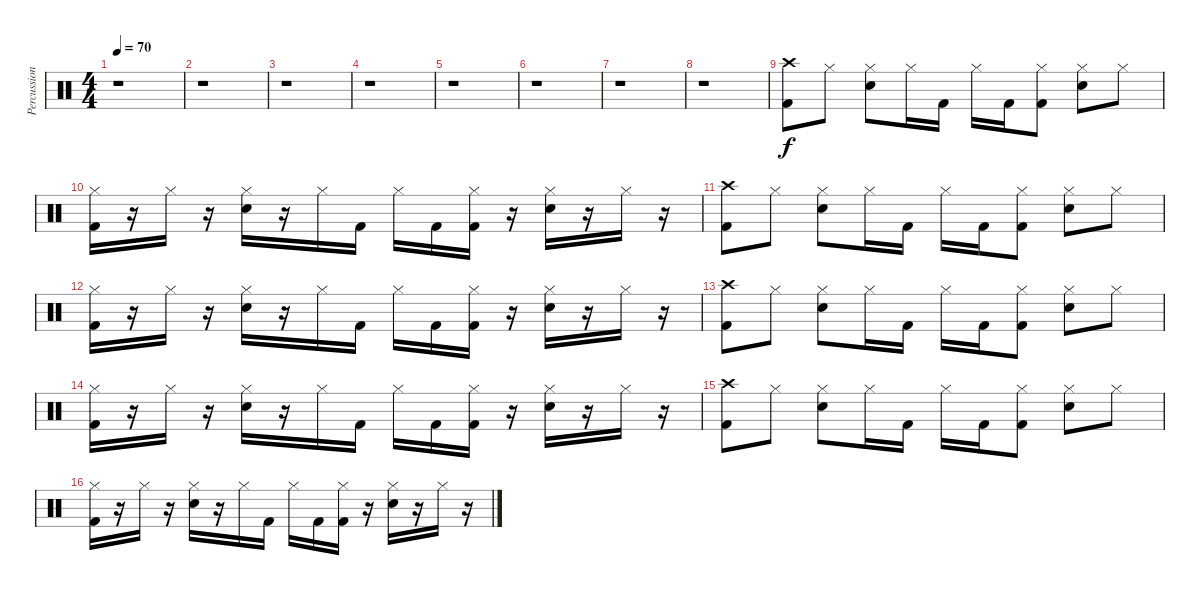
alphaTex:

\track ("Percussion" "Percussion") {instrument percussion}
\staff {score}
\articulation defaults
\ts (4 4)
\tempo 70
\clef neutral
\ks c
r.1{dy f} |
r.1 |
r.1 |
r.1 |
r.1 |
r.1 |
r.1 |
r.1 |
("Crash high (hit)" "Kick (hit) 2").8 "Hi-Hat (closed)".8 ("Hi-Hat (closed)" "Snare (hit) 2").8 "Hi-Hat (closed)".16 "Kick (hit) 2".16 "Hi-Hat (closed)".16 "Kick (hit) 2".16 ("Hi-Hat (closed)" "Kick (hit) 2").8 ("Hi-Hat (closed)" "Snare (hit) 2").8 "Hi-Hat (closed)".8 |
("Hi-Hat (closed)" "Kick (hit) 2").16 r.16 "Hi-Hat (closed)".16 r.16 ("Hi-Hat (closed)" "Snare (hit) 2").16 r.16 "Hi-Hat (closed)".16 "Kick (hit) 2".16 "Hi-Hat (closed)".16 "Kick (hit) 2".16 ("Hi-Hat (closed)" "Kick (hit) 2").16 r.16 ("Hi-Hat (closed)" "Snare (hit) 2").16 r.16 "Hi-Hat (closed)".16 r.16 |
("Crash high (hit)" "Kick (hit) 2").8 "Hi-Hat (closed)".8 ("Hi-Hat (closed)" "Snare (hit) 2").8 "Hi-Hat (closed)".16 "Kick (hit) 2".16 "Hi-Hat (closed)".16 "Kick (hit) 2".16 ("Hi-Hat (closed)" "Kick (hit) 2").8 ("Hi-Hat (closed)" "Snare (hit) 2").8 "Hi-Hat (closed)".8 |
("Hi-Hat (closed)" "Kick (hit) 2").16 r.16 "Hi-Hat (closed)".16 r.16 ("Hi-Hat (closed)" "Snare (hit) 2").16 r.16 "Hi-Hat (closed)".16 "Kick (hit) 2".16 "Hi-Hat (closed)".16 "Kick (hit) 2".16 ("Hi-Hat (closed)" "Kick (hit) 2").16 r.16 ("Hi-Hat (closed)" "Snare (hit) 2").16 r.16 "Hi-Hat (closed)".16 r.16 |
("Crash high (hit)" "Kick (hit) 2").8 "Hi-Hat (closed)".8 ("Hi-Hat (closed)" "Snare (hit) 2").8 "Hi-Hat (closed)".16 "Kick (hit) 2".16 "Hi-Hat (closed)".16 "Kick (hit) 2".16 ("Hi-Hat (closed)" "Kick (hit) 2").8 ("Hi-Hat (closed)" "Snare (hit) 2").8 "Hi-Hat (closed)".8 |
("Hi-Hat (closed)" "Kick (hit) 2").16 r.16 "Hi-Hat (closed)".16 r.16 ("Hi-Hat (closed)" "Snare (hit) 2").16 r.16 "Hi-Hat (closed)".16 "Kick (hit) 2".16 "Hi-Hat (closed)".16 "Kick (hit) 2".16 ("Hi-Hat (closed)" "Kick (hit) 2").16 r.16 ("Hi-Hat (closed)" "Snare (hit) 2").16 r.16 "Hi-Hat (closed)".16 r.16 |
("Crash high (hit)" "Kick (hit) 2").8 "Hi-Hat (closed)".8 ("Hi-Hat (closed)" "Snare (hit) 2").8 "Hi-Hat (closed)".16 "Kick (hit) 2".16 "Hi-Hat (closed)".16 "Kick (hit) 2".16 ("Hi-Hat (closed)" "Kick (hit) 2").8 ("Hi-Hat (closed)" "Snare (hit) 2").8 "Hi-Hat (closed)".8 |
("Hi-Hat (closed)" "Kick (hit) 2").16 r.16 "Hi-Hat (closed)".16 r.16 ("Hi-Hat (closed)" "Snare (hit) 2").16 r.16 "Hi-Hat (closed)".16 "Kick (hit) 2".16 "Hi-Hat (closed)".16 "Kick (hit) 2".16 ("Hi-Hat (closed)" "Kick (hit) 2").16 r.16 ("Hi-Hat (closed)" "Snare (hit) 2").16 r.16 "Hi-Hat (closed)".16 r.16
